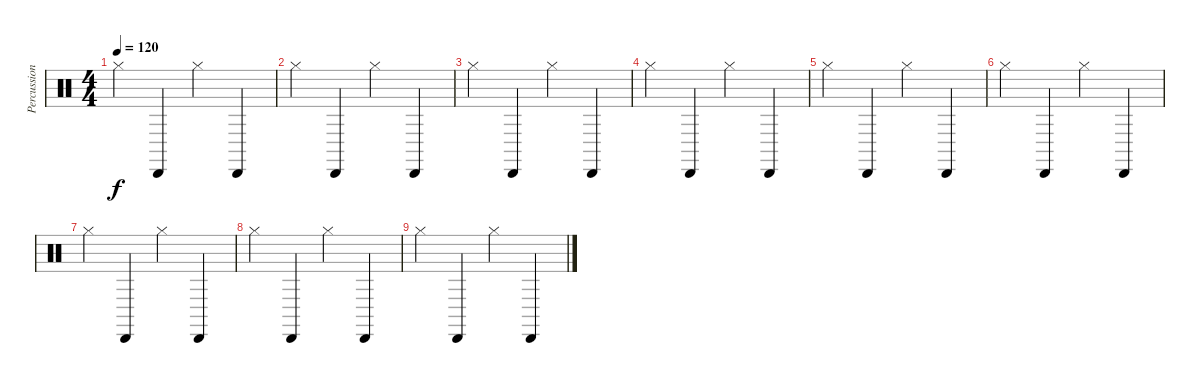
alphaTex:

\track ("Percussion" "Percussion") {instrument percussion}
\staff {score}
\articulation defaults
\ts (4 4)
\tempo 120
\clef neutral
\ks c "Hi-Hat (closed)".4{dy f} "Cabasa (hit)".4 "Hi-Hat (closed)".4 "Cabasa (hit)".4
|
"Hi-Hat (closed)".4 "Cabasa (hit)".4 "Hi-Hat (closed)".4 "Cabasa (hit)".4 |
"Hi-Hat (closed)".4 "Cabasa (hit)".4 "Hi-Hat (closed)".4 "Cabasa (hit)".4 |
"Hi-Hat (closed)".4 "Cabasa (hit)".4 "Hi-Hat (closed)".4 "Cabasa (hit)".4 |
"Hi-Hat (closed)".4 "Cabasa (hit)".4 "Hi-Hat (closed)".4 "Cabasa (hit)".4 |
"Hi-Hat (closed)".4 "Cabasa (hit)".4 "Hi-Hat (closed)".4 "Cabasa (hit)".4 |
"Hi-Hat (closed)".4 "Cabasa (hit)".4 "Hi-Hat (closed)".4 "Cabasa (hit)".4 |
"Hi-Hat (closed)".4 "Cabasa (hit)".4 "Hi-Hat (closed)".4 "Cabasa (hit)".4 |
"Hi-Hat (closed)".4 "Cabasa (hit)".4 "Hi-Hat (closed)".4 "Cabasa (hit)".4
